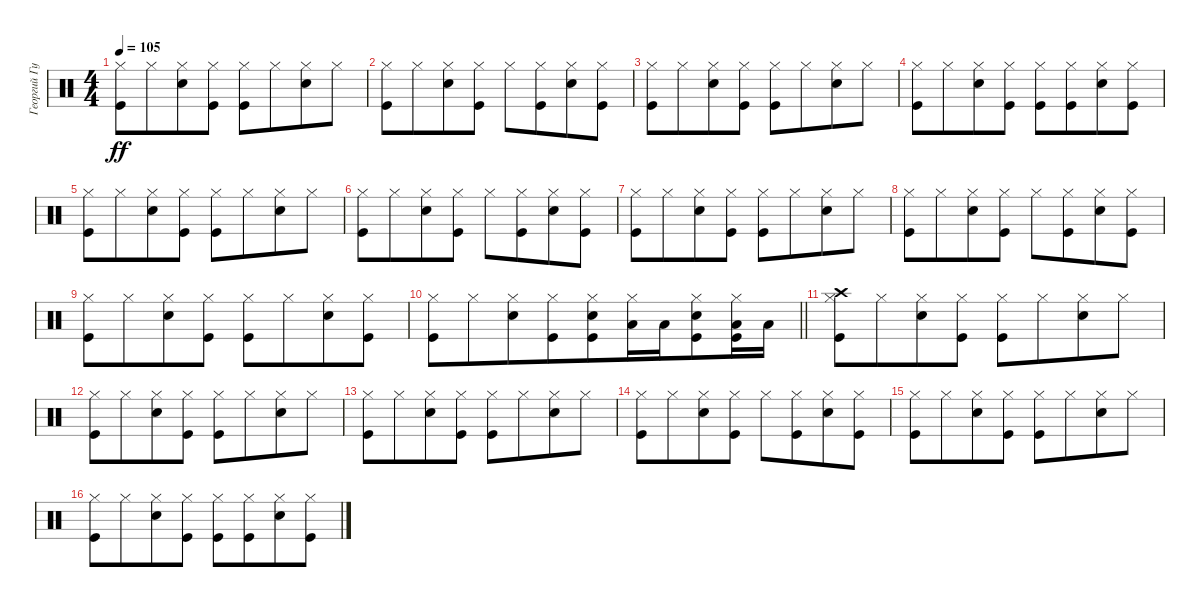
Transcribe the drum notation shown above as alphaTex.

\track ("Георгий Гурьянов" "Георгий Гу") {instrument percussion}
\staff {score}
\articulation defaults
\ts (4 4)
\tempo 105
\clef neutral
\ks c
("Hi-Hat (closed)" "Kick (hit)").8{dy ff} "Hi-Hat (closed)".8{beam merge} ("Hi-Hat (closed)" "Snare (hit) 2").8 ("Hi-Hat (closed)" "Kick (hit)").8 ("Hi-Hat (closed)" "Kick (hit)").8 "Hi-Hat (closed)".8{beam merge} ("Hi-Hat (closed)" "Snare (hit) 2").8 "Hi-Hat (closed)".8 |
("Hi-Hat (closed)" "Kick (hit)").8 "Hi-Hat (closed)".8{beam merge} ("Hi-Hat (closed)" "Snare (hit) 2").8 ("Hi-Hat (closed)" "Kick (hit)").8 "Hi-Hat (closed)".8 ("Hi-Hat (closed)" "Kick (hit)").8{beam merge} ("Hi-Hat (closed)" "Snare (hit) 2").8 ("Hi-Hat (closed)" "Kick (hit)").8 |
("Hi-Hat (closed)" "Kick (hit)").8 "Hi-Hat (closed)".8{beam merge} ("Hi-Hat (closed)" "Snare (hit) 2").8 ("Hi-Hat (closed)" "Kick (hit)").8 ("Hi-Hat (closed)" "Kick (hit)").8 "Hi-Hat (closed)".8{beam merge} ("Hi-Hat (closed)" "Snare (hit) 2").8 "Hi-Hat (closed)".8 |
("Hi-Hat (closed)" "Kick (hit)").8 "Hi-Hat (closed)".8{beam merge} ("Hi-Hat (closed)" "Snare (hit) 2").8 ("Hi-Hat (closed)" "Kick (hit)").8 ("Hi-Hat (closed)" "Kick (hit)").8 ("Hi-Hat (closed)" "Kick (hit)").8{beam merge} ("Hi-Hat (closed)" "Snare (hit) 2").8 ("Hi-Hat (closed)" "Kick (hit)").8 |
("Hi-Hat (closed)" "Kick (hit)").8 "Hi-Hat (closed)".8{beam merge} ("Hi-Hat (closed)" "Snare (hit) 2").8 ("Hi-Hat (closed)" "Kick (hit)").8 ("Hi-Hat (closed)" "Kick (hit)").8 "Hi-Hat (closed)".8{beam merge} ("Hi-Hat (closed)" "Snare (hit) 2").8 "Hi-Hat (closed)".8 |
("Hi-Hat (closed)" "Kick (hit)").8 "Hi-Hat (closed)".8{beam merge} ("Hi-Hat (closed)" "Snare (hit) 2").8 ("Hi-Hat (closed)" "Kick (hit)").8 "Hi-Hat (closed)".8 ("Hi-Hat (closed)" "Kick (hit)").8{beam merge} ("Hi-Hat (closed)" "Snare (hit) 2").8 ("Hi-Hat (closed)" "Kick (hit)").8 |
("Hi-Hat (closed)" "Kick (hit)").8 "Hi-Hat (closed)".8{beam merge} ("Hi-Hat (closed)" "Snare (hit) 2").8 ("Hi-Hat (closed)" "Kick (hit)").8 ("Hi-Hat (closed)" "Kick (hit)").8 "Hi-Hat (closed)".8{beam merge} ("Hi-Hat (closed)" "Snare (hit) 2").8 "Hi-Hat (closed)".8 |
("Hi-Hat (closed)" "Kick (hit)").8 "Hi-Hat (closed)".8{beam merge} ("Hi-Hat (closed)" "Snare (hit) 2").8 ("Hi-Hat (closed)" "Kick (hit)").8 "Hi-Hat (closed)".8 ("Hi-Hat (closed)" "Kick (hit)").8{beam merge} ("Hi-Hat (closed)" "Snare (hit) 2").8 ("Hi-Hat (closed)" "Kick (hit)").8 |
("Hi-Hat (closed)" "Kick (hit)").8 "Hi-Hat (closed)".8{beam merge} ("Hi-Hat (closed)" "Snare (hit) 2").8 ("Hi-Hat (closed)" "Kick (hit)").8 ("Hi-Hat (closed)" "Kick (hit)").8 "Hi-Hat (closed)".8{beam merge} ("Hi-Hat (closed)" "Snare (hit) 2").8 ("Hi-Hat (closed)" "Kick (hit)").8 |
\barLineRight lightlight
("Hi-Hat (closed)" "Kick (hit)").8 "Hi-Hat (closed)".8{beam merge} ("Hi-Hat (closed)" "Snare (hit) 2").8 ("Hi-Hat (closed)" "Kick (hit)").8{beam merge} ("Hi-Hat (closed)" "Snare (hit) 2" "Kick (hit)").8{beam merge} ("Hi-Hat (closed)" "Low Tom (hit)").16{beam merge} "Low Tom (hit)".16{beam merge} ("Hi-Hat (closed)" "Snare (hit) 2" "Kick (hit)").8 ("Hi-Hat (closed)" "Low Tom (hit)" "Kick (hit)").16 "Low Tom (hit)".16 |
("Hi-Hat (closed)" "Crash high (hit)" "Kick (hit)").8 "Hi-Hat (closed)".8{beam merge} ("Hi-Hat (closed)" "Snare (hit) 2").8 ("Hi-Hat (closed)" "Kick (hit)").8 ("Hi-Hat (closed)" "Kick (hit)").8 "Hi-Hat (closed)".8{beam merge} ("Hi-Hat (closed)" "Snare (hit) 2").8 "Hi-Hat (closed)".8 |
("Hi-Hat (closed)" "Kick (hit)").8 "Hi-Hat (closed)".8{beam merge} ("Hi-Hat (closed)" "Snare (hit) 2").8 ("Hi-Hat (closed)" "Kick (hit)").8 ("Hi-Hat (closed)" "Kick (hit)").8 "Hi-Hat (closed)".8{beam merge} ("Hi-Hat (closed)" "Snare (hit) 2").8 "Hi-Hat (closed)".8 |
("Hi-Hat (closed)" "Kick (hit)").8 "Hi-Hat (closed)".8{beam merge} ("Hi-Hat (closed)" "Snare (hit) 2").8 ("Hi-Hat (closed)" "Kick (hit)").8 ("Hi-Hat (closed)" "Kick (hit)").8 "Hi-Hat (closed)".8{beam merge} ("Hi-Hat (closed)" "Snare (hit) 2").8 "Hi-Hat (closed)".8 |
("Hi-Hat (closed)" "Kick (hit)").8 "Hi-Hat (closed)".8{beam merge} ("Hi-Hat (closed)" "Snare (hit) 2").8 ("Hi-Hat (closed)" "Kick (hit)").8 "Hi-Hat (closed)".8 ("Hi-Hat (closed)" "Kick (hit)").8{beam merge} ("Hi-Hat (closed)" "Snare (hit) 2").8 ("Hi-Hat (closed)" "Kick (hit)").8 |
("Hi-Hat (closed)" "Kick (hit)").8 "Hi-Hat (closed)".8{beam merge} ("Hi-Hat (closed)" "Snare (hit) 2").8 ("Hi-Hat (closed)" "Kick (hit)").8 ("Hi-Hat (closed)" "Kick (hit)").8 "Hi-Hat (closed)".8{beam merge} ("Hi-Hat (closed)" "Snare (hit) 2").8 "Hi-Hat (closed)".8 |
("Hi-Hat (closed)" "Kick (hit)").8 "Hi-Hat (closed)".8{beam merge} ("Hi-Hat (closed)" "Snare (hit) 2").8 ("Hi-Hat (closed)" "Kick (hit)").8 ("Hi-Hat (closed)" "Kick (hit)").8 ("Hi-Hat (closed)" "Kick (hit)").8{beam merge} ("Hi-Hat (closed)" "Snare (hit) 2").8 ("Hi-Hat (closed)" "Kick (hit)").8
